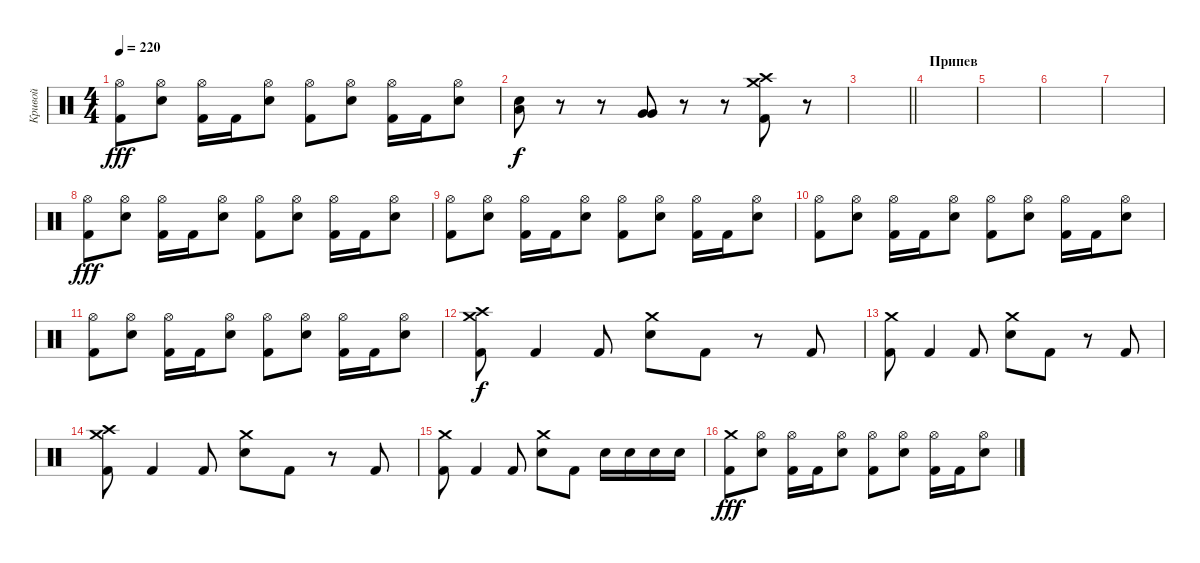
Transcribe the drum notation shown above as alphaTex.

\track ("Кривой" "Кривой") {instrument percussion}
\staff {score}
\articulation defaults
\ts (4 4)
\tempo 220
\clef neutral
\ks c
("Hi-Hat (open)" "Kick (hit) 2").8{dy fff} ("Hi-Hat (open)" "Electric Snare (hit)").8 ("Hi-Hat (open)" "Kick (hit) 2").16 "Kick (hit) 2".16 ("Hi-Hat (open)" "Electric Snare (hit)").8 ("Hi-Hat (open)" "Kick (hit) 2").8 ("Hi-Hat (open)" "Electric Snare (hit)").8 ("Hi-Hat (open)" "Kick (hit) 2").16 "Kick (hit) 2".16 ("Hi-Hat (open)" "Electric Snare (hit)").8 |
("Low Tom (hit)" "Electric Snare (hit)").8{dy f} r.8 r.8 ("Very Low Tom (hit)" "Very Low Tom (hit)").8 r.8 r.8 ("Crash medium (hit)" "Crash high (hit)" "Kick (hit) 2").8 r.8 |
\barLineRight lightlight
|
\section ("" "Припев")
|
|
|
|
("Hi-Hat (open)" "Kick (hit) 2").8{dy fff} ("Hi-Hat (open)" "Electric Snare (hit)").8 ("Hi-Hat (open)" "Kick (hit) 2").16 "Kick (hit) 2".16 ("Hi-Hat (open)" "Electric Snare (hit)").8 ("Hi-Hat (open)" "Kick (hit) 2").8 ("Hi-Hat (open)" "Electric Snare (hit)").8 ("Hi-Hat (open)" "Kick (hit) 2").16 "Kick (hit) 2".16 ("Hi-Hat (open)" "Electric Snare (hit)").8 |
("Hi-Hat (open)" "Kick (hit) 2").8 ("Hi-Hat (open)" "Electric Snare (hit)").8 ("Hi-Hat (open)" "Kick (hit) 2").16 "Kick (hit) 2".16 ("Hi-Hat (open)" "Electric Snare (hit)").8 ("Hi-Hat (open)" "Kick (hit) 2").8 ("Hi-Hat (open)" "Electric Snare (hit)").8 ("Hi-Hat (open)" "Kick (hit) 2").16 "Kick (hit) 2".16 ("Hi-Hat (open)" "Electric Snare (hit)").8 |
("Hi-Hat (open)" "Kick (hit) 2").8 ("Hi-Hat (open)" "Electric Snare (hit)").8 ("Hi-Hat (open)" "Kick (hit) 2").16 "Kick (hit) 2".16 ("Hi-Hat (open)" "Electric Snare (hit)").8 ("Hi-Hat (open)" "Kick (hit) 2").8 ("Hi-Hat (open)" "Electric Snare (hit)").8 ("Hi-Hat (open)" "Kick (hit) 2").16 "Kick (hit) 2".16 ("Hi-Hat (open)" "Electric Snare (hit)").8 |
("Hi-Hat (open)" "Kick (hit) 2").8 ("Hi-Hat (open)" "Electric Snare (hit)").8 ("Hi-Hat (open)" "Kick (hit) 2").16 "Kick (hit) 2".16 ("Hi-Hat (open)" "Electric Snare (hit)").8 ("Hi-Hat (open)" "Kick (hit) 2").8 ("Hi-Hat (open)" "Electric Snare (hit)").8 ("Hi-Hat (open)" "Kick (hit) 2").16 "Kick (hit) 2".16 ("Hi-Hat (open)" "Electric Snare (hit)").8 |
("Crash medium (hit)" "Crash high (hit)" "Kick (hit) 2").8{dy f} "Kick (hit) 2".4 "Kick (hit) 2".8 ("Crash medium (hit)" "Electric Snare (hit)").8 "Kick (hit) 2".8 r.8 "Kick (hit) 2".8 |
("Crash medium (hit)" "Kick (hit) 2").8 "Kick (hit) 2".4 "Kick (hit) 2".8 ("Crash medium (hit)" "Electric Snare (hit)").8 "Kick (hit) 2".8 r.8 "Kick (hit) 2".8 |
("Crash medium (hit)" "Crash high (hit)" "Kick (hit) 2").8 "Kick (hit) 2".4 "Kick (hit) 2".8 ("Crash medium (hit)" "Electric Snare (hit)").8 "Kick (hit) 2".8 r.8 "Kick (hit) 2".8 |
("Crash medium (hit)" "Kick (hit) 2").8 "Kick (hit) 2".4 "Kick (hit) 2".8 ("Crash medium (hit)" "Electric Snare (hit)").8 "Kick (hit) 2".8 "Electric Snare (hit)".16 "Electric Snare (hit)".16 "Electric Snare (hit)".16 "Electric Snare (hit)".16 |
("Crash medium (hit)" "Kick (hit) 2").8{dy fff} ("Hi-Hat (open)" "Electric Snare (hit)").8 ("Hi-Hat (open)" "Kick (hit) 2").16 "Kick (hit) 2".16 ("Hi-Hat (open)" "Electric Snare (hit)").8 ("Hi-Hat (open)" "Kick (hit) 2").8 ("Hi-Hat (open)" "Electric Snare (hit)").8 ("Hi-Hat (open)" "Kick (hit) 2").16 "Kick (hit) 2".16 ("Hi-Hat (open)" "Electric Snare (hit)").8
